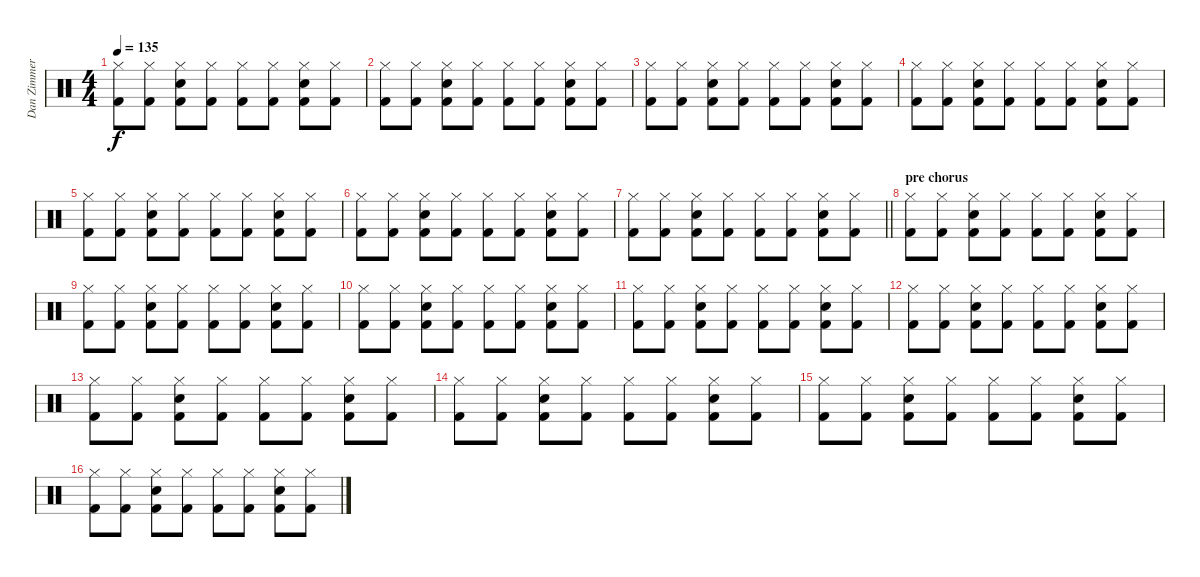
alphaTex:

\track ("Dan Zimmerman" "Dan Zimmer") {instrument percussion}
\staff {score}
\articulation defaults
\ts (4 4)
\tempo 135
\clef neutral
\ks c
("Hi-Hat (closed)" "Kick (hit) 2").8{dy f} ("Hi-Hat (closed)" "Kick (hit) 2").8 ("Snare (hit) 2" "Hi-Hat (closed)" "Kick (hit) 2").8 ("Hi-Hat (closed)" "Kick (hit) 2").8 ("Hi-Hat (closed)" "Kick (hit) 2").8 ("Hi-Hat (closed)" "Kick (hit) 2").8 ("Snare (hit) 2" "Hi-Hat (closed)" "Kick (hit) 2").8 ("Hi-Hat (closed)" "Kick (hit) 2").8 |
("Hi-Hat (closed)" "Kick (hit) 2").8 ("Hi-Hat (closed)" "Kick (hit) 2").8 ("Snare (hit) 2" "Hi-Hat (closed)" "Kick (hit) 2").8 ("Hi-Hat (closed)" "Kick (hit) 2").8 ("Hi-Hat (closed)" "Kick (hit) 2").8 ("Hi-Hat (closed)" "Kick (hit) 2").8 ("Snare (hit) 2" "Hi-Hat (closed)" "Kick (hit) 2").8 ("Hi-Hat (closed)" "Kick (hit) 2").8 |
("Hi-Hat (closed)" "Kick (hit) 2").8 ("Hi-Hat (closed)" "Kick (hit) 2").8 ("Snare (hit) 2" "Hi-Hat (closed)" "Kick (hit) 2").8 ("Hi-Hat (closed)" "Kick (hit) 2").8 ("Hi-Hat (closed)" "Kick (hit) 2").8 ("Hi-Hat (closed)" "Kick (hit) 2").8 ("Snare (hit) 2" "Hi-Hat (closed)" "Kick (hit) 2").8 ("Hi-Hat (closed)" "Kick (hit) 2").8 |
("Hi-Hat (closed)" "Kick (hit) 2").8 ("Hi-Hat (closed)" "Kick (hit) 2").8 ("Snare (hit) 2" "Hi-Hat (closed)" "Kick (hit) 2").8 ("Hi-Hat (closed)" "Kick (hit) 2").8 ("Hi-Hat (closed)" "Kick (hit) 2").8 ("Hi-Hat (closed)" "Kick (hit) 2").8 ("Snare (hit) 2" "Hi-Hat (closed)" "Kick (hit) 2").8 ("Hi-Hat (closed)" "Kick (hit) 2").8 |
("Hi-Hat (closed)" "Kick (hit) 2").8 ("Hi-Hat (closed)" "Kick (hit) 2").8 ("Snare (hit) 2" "Hi-Hat (closed)" "Kick (hit) 2").8 ("Hi-Hat (closed)" "Kick (hit) 2").8 ("Hi-Hat (closed)" "Kick (hit) 2").8 ("Hi-Hat (closed)" "Kick (hit) 2").8 ("Snare (hit) 2" "Hi-Hat (closed)" "Kick (hit) 2").8 ("Hi-Hat (closed)" "Kick (hit) 2").8 |
("Hi-Hat (closed)" "Kick (hit) 2").8 ("Hi-Hat (closed)" "Kick (hit) 2").8 ("Snare (hit) 2" "Hi-Hat (closed)" "Kick (hit) 2").8 ("Hi-Hat (closed)" "Kick (hit) 2").8 ("Hi-Hat (closed)" "Kick (hit) 2").8 ("Hi-Hat (closed)" "Kick (hit) 2").8 ("Snare (hit) 2" "Hi-Hat (closed)" "Kick (hit) 2").8 ("Hi-Hat (closed)" "Kick (hit) 2").8 |
\barLineRight lightlight
("Hi-Hat (closed)" "Kick (hit) 2").8 ("Hi-Hat (closed)" "Kick (hit) 2").8 ("Snare (hit) 2" "Hi-Hat (closed)" "Kick (hit) 2").8 ("Hi-Hat (closed)" "Kick (hit) 2").8 ("Hi-Hat (closed)" "Kick (hit) 2").8 ("Hi-Hat (closed)" "Kick (hit) 2").8 ("Snare (hit) 2" "Hi-Hat (closed)" "Kick (hit) 2").8 ("Hi-Hat (closed)" "Kick (hit) 2").8 |
\section ("" "pre chorus")
("Hi-Hat (closed)" "Kick (hit) 2").8 ("Hi-Hat (closed)" "Kick (hit) 2").8 ("Snare (hit) 2" "Hi-Hat (closed)" "Kick (hit) 2").8 ("Hi-Hat (closed)" "Kick (hit) 2").8 ("Hi-Hat (closed)" "Kick (hit) 2").8 ("Hi-Hat (closed)" "Kick (hit) 2").8 ("Snare (hit) 2" "Hi-Hat (closed)" "Kick (hit) 2").8 ("Hi-Hat (closed)" "Kick (hit) 2").8 |
("Hi-Hat (closed)" "Kick (hit) 2").8 ("Hi-Hat (closed)" "Kick (hit) 2").8 ("Snare (hit) 2" "Hi-Hat (closed)" "Kick (hit) 2").8 ("Hi-Hat (closed)" "Kick (hit) 2").8 ("Hi-Hat (closed)" "Kick (hit) 2").8 ("Hi-Hat (closed)" "Kick (hit) 2").8 ("Snare (hit) 2" "Hi-Hat (closed)" "Kick (hit) 2").8 ("Hi-Hat (closed)" "Kick (hit) 2").8 |
("Hi-Hat (closed)" "Kick (hit) 2").8 ("Hi-Hat (closed)" "Kick (hit) 2").8 ("Snare (hit) 2" "Hi-Hat (closed)" "Kick (hit) 2").8 ("Hi-Hat (closed)" "Kick (hit) 2").8 ("Hi-Hat (closed)" "Kick (hit) 2").8 ("Hi-Hat (closed)" "Kick (hit) 2").8 ("Snare (hit) 2" "Hi-Hat (closed)" "Kick (hit) 2").8 ("Hi-Hat (closed)" "Kick (hit) 2").8 |
("Hi-Hat (closed)" "Kick (hit) 2").8 ("Hi-Hat (closed)" "Kick (hit) 2").8 ("Snare (hit) 2" "Hi-Hat (closed)" "Kick (hit) 2").8 ("Hi-Hat (closed)" "Kick (hit) 2").8 ("Hi-Hat (closed)" "Kick (hit) 2").8 ("Hi-Hat (closed)" "Kick (hit) 2").8 ("Snare (hit) 2" "Hi-Hat (closed)" "Kick (hit) 2").8 ("Hi-Hat (closed)" "Kick (hit) 2").8 |
("Hi-Hat (closed)" "Kick (hit) 2").8 ("Hi-Hat (closed)" "Kick (hit) 2").8 ("Snare (hit) 2" "Hi-Hat (closed)" "Kick (hit) 2").8 ("Hi-Hat (closed)" "Kick (hit) 2").8 ("Hi-Hat (closed)" "Kick (hit) 2").8 ("Hi-Hat (closed)" "Kick (hit) 2").8 ("Snare (hit) 2" "Hi-Hat (closed)" "Kick (hit) 2").8 ("Hi-Hat (closed)" "Kick (hit) 2").8 |
("Hi-Hat (closed)" "Kick (hit) 2").8 ("Hi-Hat (closed)" "Kick (hit) 2").8 ("Snare (hit) 2" "Hi-Hat (closed)" "Kick (hit) 2").8 ("Hi-Hat (closed)" "Kick (hit) 2").8 ("Hi-Hat (closed)" "Kick (hit) 2").8 ("Hi-Hat (closed)" "Kick (hit) 2").8 ("Snare (hit) 2" "Hi-Hat (closed)" "Kick (hit) 2").8 ("Hi-Hat (closed)" "Kick (hit) 2").8 |
("Hi-Hat (closed)" "Kick (hit) 2").8 ("Hi-Hat (closed)" "Kick (hit) 2").8 ("Snare (hit) 2" "Hi-Hat (closed)" "Kick (hit) 2").8 ("Hi-Hat (closed)" "Kick (hit) 2").8 ("Hi-Hat (closed)" "Kick (hit) 2").8 ("Hi-Hat (closed)" "Kick (hit) 2").8 ("Snare (hit) 2" "Hi-Hat (closed)" "Kick (hit) 2").8 ("Hi-Hat (closed)" "Kick (hit) 2").8 |
("Hi-Hat (closed)" "Kick (hit) 2").8 ("Hi-Hat (closed)" "Kick (hit) 2").8 ("Snare (hit) 2" "Hi-Hat (closed)" "Kick (hit) 2").8 ("Hi-Hat (closed)" "Kick (hit) 2").8 ("Hi-Hat (closed)" "Kick (hit) 2").8 ("Hi-Hat (closed)" "Kick (hit) 2").8 ("Snare (hit) 2" "Hi-Hat (closed)" "Kick (hit) 2").8 ("Hi-Hat (closed)" "Kick (hit) 2").8 |
("Hi-Hat (closed)" "Kick (hit) 2").8 ("Hi-Hat (closed)" "Kick (hit) 2").8 ("Snare (hit) 2" "Hi-Hat (closed)" "Kick (hit) 2").8 ("Hi-Hat (closed)" "Kick (hit) 2").8 ("Hi-Hat (closed)" "Kick (hit) 2").8 ("Hi-Hat (closed)" "Kick (hit) 2").8 ("Snare (hit) 2" "Hi-Hat (closed)" "Kick (hit) 2").8 ("Hi-Hat (closed)" "Kick (hit) 2").8
